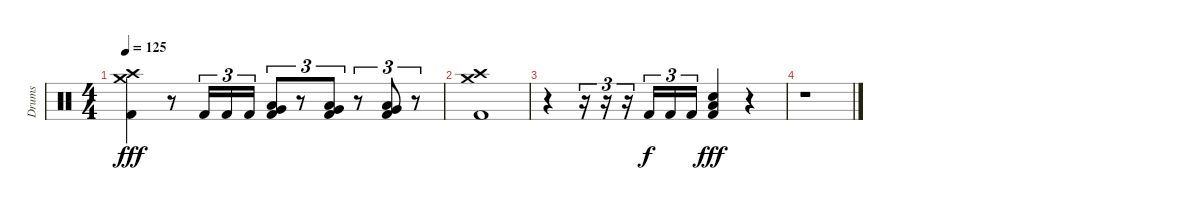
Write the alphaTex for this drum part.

\track ("Drums" "Drums") {instrument percussion}
\staff {score}
\articulation defaults
\ts (4 4)
\tempo 125
\clef neutral
\ks c
("Crash high (hit)" "Kick (hit) 2" "Crash medium (hit)").4{dy fff} r.8 "Kick (hit) 2".16{tu (3 2)} "Kick (hit) 2".16{tu (3 2)} "Kick (hit) 2".16{tu (3 2)} ("Low Tom (hit)" "Very Low Tom (hit)" "Kick (hit) 2").8{tu (3 2)} r.8{tu (3 2)} ("Low Tom (hit)" "Very Low Tom (hit)" "Kick (hit) 2").8{tu (3 2)} r.8{tu (3 2)} ("Low Tom (hit)" "Very Low Tom (hit)" "Kick (hit) 2").8{tu (3 2)} r.8{tu (3 2)} |
("Crash high (hit)" "Crash medium (hit)" "Kick (hit) 2").1 |
r.4 r.16{tu (3 2)} r.16{tu (3 2)} r.16{tu (3 2)} "Kick (hit) 2".16{tu (3 2) dy f} "Kick (hit) 2".16{tu (3 2)} "Kick (hit) 2".16{tu (3 2)} ("Electric Snare (hit)" "Low Floor Tom (hit)" "Kick (hit) 2").4{dy fff} r.4 |
r.1
